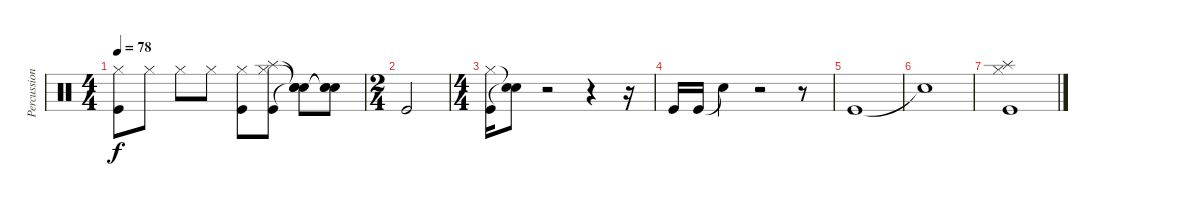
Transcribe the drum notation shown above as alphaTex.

\track ("Percussion" "Percussion") {instrument percussion}
\staff {score}
\articulation defaults
\ts (4 4)
\tempo 78
\clef neutral
\ks c
("Hi-Hat (closed)" "Kick (hit)").8{dy f} "Hi-Hat (closed)".8 "Hi-Hat (closed)".8 "Hi-Hat (closed)".8 ("Hi-Hat (closed)" "Kick (hit)").8 ("Splash (hit)" "Hi-Hat (closed)" "Kick (hit)").8 ("Snare (hit)"{t} "Snare (hit)"{t} "Snare (hit)"{t}).8 ("Snare (hit)"{t} "Snare (hit)"{t} "Snare (hit)"{t}).8 |
\ts (2 4)
"Kick (hit)".2 |
\ts (4 4)
("Hi-Hat (closed)" "Kick (hit)").16 ("Snare (hit)"{t} "Snare (hit)"{t}).8 r.2 r.4 r.16 |
"Kick (hit)".16 "Kick (hit)".16 "Snare (hit)"{t}.4 r.2 r.8 |
"Kick (hit)".1 |
"Snare (hit)"{t}.1 |
("Splash (hit)" "Hi-Hat (closed)" "Kick (hit)").1
